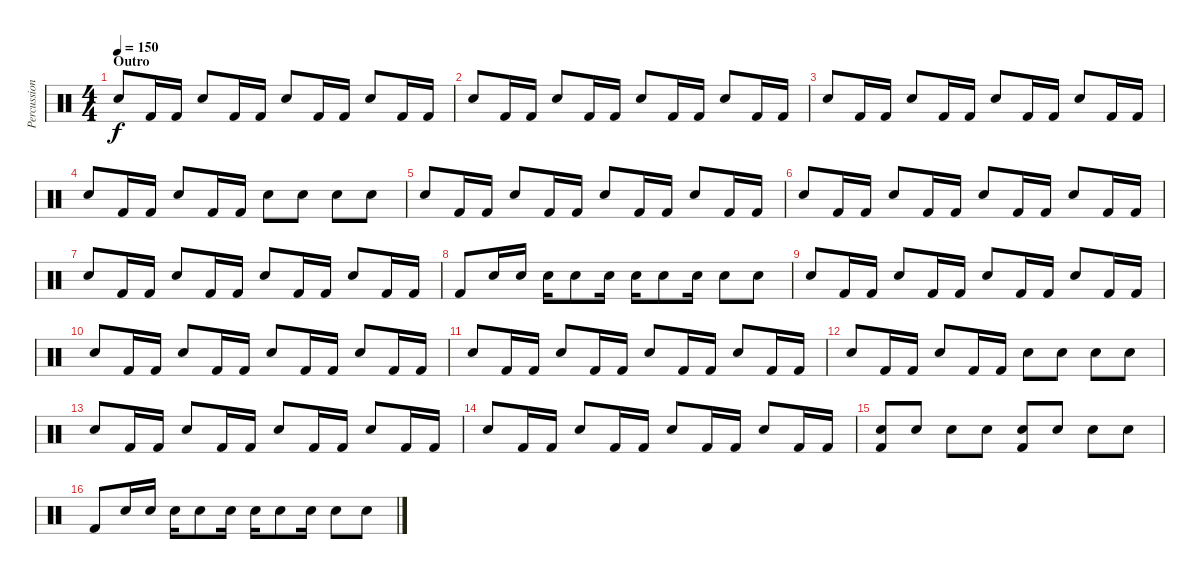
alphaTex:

\track ("Percussion" "Percussion") {instrument percussion}
\staff {score}
\articulation defaults
\ts (4 4)
\section ("" "Outro")
\tempo 150
\clef neutral
\ks c "Snare (hit) 2".8{dy f} "Kick (hit) 2".16 "Kick (hit) 2".16 "Snare (hit) 2".8 "Kick (hit) 2".16 "Kick (hit) 2".16 "Snare (hit) 2".8 "Kick (hit) 2".16 "Kick (hit) 2".16 "Snare (hit) 2".8 "Kick (hit) 2".16 "Kick (hit) 2".16
|
"Snare (hit) 2".8 "Kick (hit) 2".16 "Kick (hit) 2".16 "Snare (hit) 2".8 "Kick (hit) 2".16 "Kick (hit) 2".16 "Snare (hit) 2".8 "Kick (hit) 2".16 "Kick (hit) 2".16 "Snare (hit) 2".8 "Kick (hit) 2".16 "Kick (hit) 2".16 |
"Snare (hit) 2".8 "Kick (hit) 2".16 "Kick (hit) 2".16 "Snare (hit) 2".8 "Kick (hit) 2".16 "Kick (hit) 2".16 "Snare (hit) 2".8 "Kick (hit) 2".16 "Kick (hit) 2".16 "Snare (hit) 2".8 "Kick (hit) 2".16 "Kick (hit) 2".16 |
"Snare (hit) 2".8 "Kick (hit) 2".16 "Kick (hit) 2".16 "Snare (hit) 2".8 "Kick (hit) 2".16 "Kick (hit) 2".16 "Snare (hit) 2".8 "Snare (hit) 2".8 "Snare (hit) 2".8 "Snare (hit) 2".8 |
"Snare (hit) 2".8 "Kick (hit) 2".16 "Kick (hit) 2".16 "Snare (hit) 2".8 "Kick (hit) 2".16 "Kick (hit) 2".16 "Snare (hit) 2".8 "Kick (hit) 2".16 "Kick (hit) 2".16 "Snare (hit) 2".8 "Kick (hit) 2".16 "Kick (hit) 2".16 |
"Snare (hit) 2".8 "Kick (hit) 2".16 "Kick (hit) 2".16 "Snare (hit) 2".8 "Kick (hit) 2".16 "Kick (hit) 2".16 "Snare (hit) 2".8 "Kick (hit) 2".16 "Kick (hit) 2".16 "Snare (hit) 2".8 "Kick (hit) 2".16 "Kick (hit) 2".16 |
"Snare (hit) 2".8 "Kick (hit) 2".16 "Kick (hit) 2".16 "Snare (hit) 2".8 "Kick (hit) 2".16 "Kick (hit) 2".16 "Snare (hit) 2".8 "Kick (hit) 2".16 "Kick (hit) 2".16 "Snare (hit) 2".8 "Kick (hit) 2".16 "Kick (hit) 2".16 |
"Kick (hit) 2".8 "Snare (hit) 2".16 "Snare (hit) 2".16 "Snare (hit) 2".16 "Snare (hit) 2".8 "Snare (hit) 2".16 "Snare (hit) 2".16 "Snare (hit) 2".8 "Snare (hit) 2".16 "Snare (hit) 2".8 "Snare (hit) 2".8 |
"Snare (hit) 2".8 "Kick (hit) 2".16 "Kick (hit) 2".16 "Snare (hit) 2".8 "Kick (hit) 2".16 "Kick (hit) 2".16 "Snare (hit) 2".8 "Kick (hit) 2".16 "Kick (hit) 2".16 "Snare (hit) 2".8 "Kick (hit) 2".16 "Kick (hit) 2".16 |
"Snare (hit) 2".8 "Kick (hit) 2".16 "Kick (hit) 2".16 "Snare (hit) 2".8 "Kick (hit) 2".16 "Kick (hit) 2".16 "Snare (hit) 2".8 "Kick (hit) 2".16 "Kick (hit) 2".16 "Snare (hit) 2".8 "Kick (hit) 2".16 "Kick (hit) 2".16 |
"Snare (hit) 2".8 "Kick (hit) 2".16 "Kick (hit) 2".16 "Snare (hit) 2".8 "Kick (hit) 2".16 "Kick (hit) 2".16 "Snare (hit) 2".8 "Kick (hit) 2".16 "Kick (hit) 2".16 "Snare (hit) 2".8 "Kick (hit) 2".16 "Kick (hit) 2".16 |
"Snare (hit) 2".8 "Kick (hit) 2".16 "Kick (hit) 2".16 "Snare (hit) 2".8 "Kick (hit) 2".16 "Kick (hit) 2".16 "Snare (hit) 2".8 "Snare (hit) 2".8 "Snare (hit) 2".8 "Snare (hit) 2".8 |
"Snare (hit) 2".8 "Kick (hit) 2".16 "Kick (hit) 2".16 "Snare (hit) 2".8 "Kick (hit) 2".16 "Kick (hit) 2".16 "Snare (hit) 2".8 "Kick (hit) 2".16 "Kick (hit) 2".16 "Snare (hit) 2".8 "Kick (hit) 2".16 "Kick (hit) 2".16 |
"Snare (hit) 2".8 "Kick (hit) 2".16 "Kick (hit) 2".16 "Snare (hit) 2".8 "Kick (hit) 2".16 "Kick (hit) 2".16 "Snare (hit) 2".8 "Kick (hit) 2".16 "Kick (hit) 2".16 "Snare (hit) 2".8 "Kick (hit) 2".16 "Kick (hit) 2".16 |
("Snare (hit) 2" "Kick (hit) 2").8 "Snare (hit) 2".8 "Snare (hit) 2".8 "Snare (hit) 2".8 ("Snare (hit) 2" "Kick (hit) 2").8 "Snare (hit) 2".8 "Snare (hit) 2".8 "Snare (hit) 2".8 |
"Kick (hit) 2".8 "Snare (hit) 2".16 "Snare (hit) 2".16 "Snare (hit) 2".16 "Snare (hit) 2".8 "Snare (hit) 2".16 "Snare (hit) 2".16 "Snare (hit) 2".8 "Snare (hit) 2".16 "Snare (hit) 2".8 "Snare (hit) 2".8
